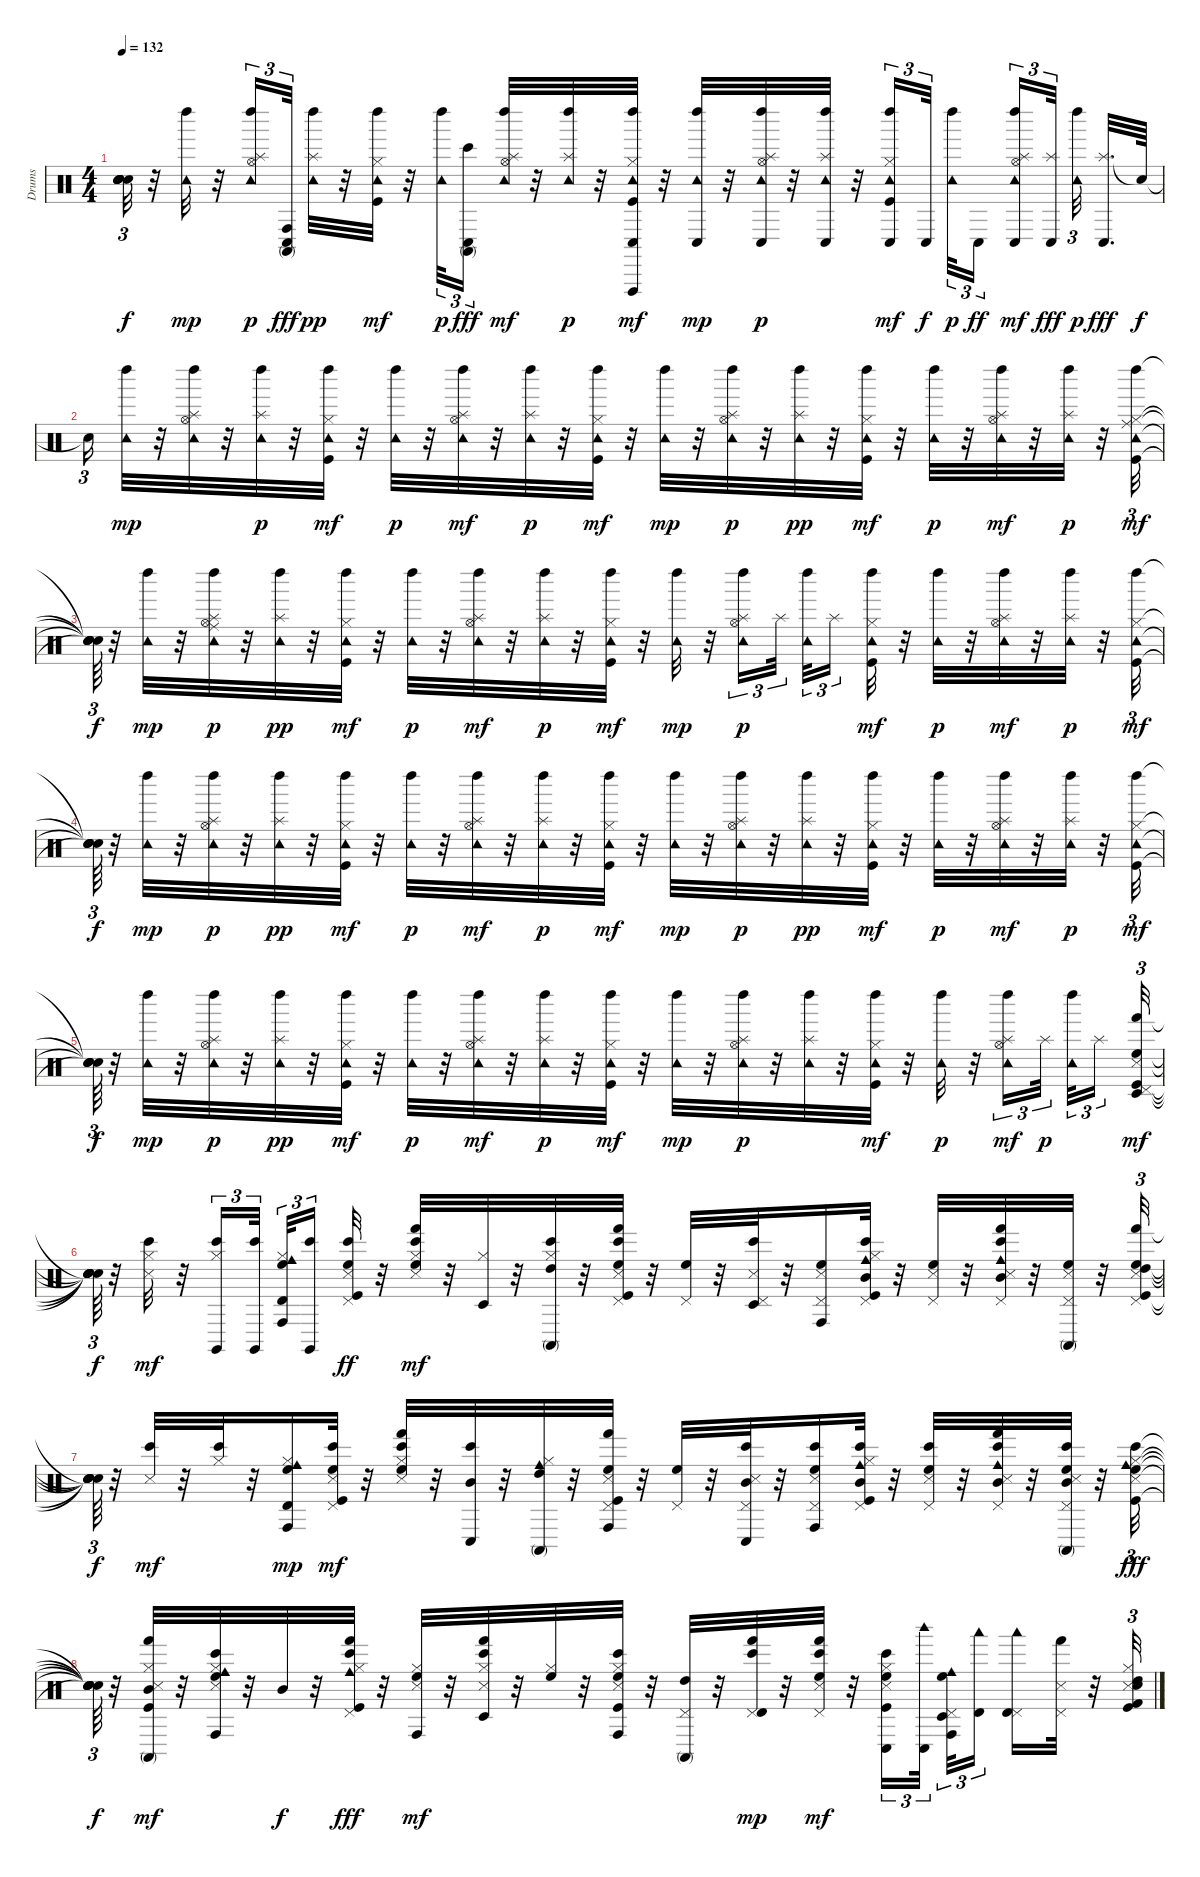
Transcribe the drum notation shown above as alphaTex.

\track ("Drums" "Drums") {instrument percussion}
\staff {score}
\articulation defaults
\ts (4 4)
\tempo 132
\clef neutral
\ks c
("Snare (hit)"{t} "Snare (hit)"{t} "Snare (hit)"{t} "Snare (hit)"{t} "Snare (hit)"{t} "Snare (hit)"{t}).32{tu (3 2) dy f} r.32 ("Tambourine (hit)" "Left Maraca (hit)").32{dy mp} r.32 ("Hi-Hat (open)" "Tambourine (hit)" "Splash (hit)" "Left Maraca (hit)").16{tu (3 2) dy p} ("Conga high (mute)" "Conga high (hit)" "Conga low (hit)").32{tu (3 2) dy fff} ("Tambourine (hit)" "Splash (hit)" "Left Maraca (hit)").32{dy pp} r.32 ("Kick (hit)" "Hi-Hat (closed)" "Tambourine (hit)" "Left Maraca (hit)").32{dy mf} r.32 ("Tambourine (hit)" "Left Maraca (hit)").32{tu (3 2) dy p} ("Bongo High (hit)" "Conga high (mute)" "Conga low (hit)").16{tu (3 2) dy fff beam splitsecondary} ("Hi-Hat (open)" "Tambourine (hit)" "Splash (hit)" "Left Maraca (hit)").32{dy mf} r.32 ("Tambourine (hit)" "Splash (hit)" "Left Maraca (hit)").32{dy p} r.32 ("Kick (hit)" "Hi-Hat (closed)" "Tambourine (hit)" "Vibraslap (hit)" "Conga low (hit)" "Left Maraca (hit)").32{dy mf} r.32 ("Tambourine (hit)" "Conga low (hit)" "Left Maraca (hit)").32{dy mp} r.32 ("Hi-Hat (open)" "Tambourine (hit)" "Splash (hit)" "Conga low (hit)" "Left Maraca (hit)").32{dy p} r.32 ("Tambourine (hit)" "Splash (hit)" "Conga low (hit)" "Left Maraca (hit)").32 r.32 ("Kick (hit)" "Hi-Hat (closed)" "Tambourine (hit)" "Conga low (hit)" "Left Maraca (hit)").16{tu (3 2) dy mf} "Conga low (hit)".32{tu (3 2) dy f beam splitsecondary} ("Tambourine (hit)" "Left Maraca (hit)").32{tu (3 2) dy p} "Conga low (hit)".16{tu (3 2) dy ff beam splitsecondary} ("Hi-Hat (open)" "Tambourine (hit)" "Splash (hit)" "Conga low (hit)" "Left Maraca (hit)").16{tu (3 2) dy mf} ("Splash (hit)" "Conga low (hit)").32{tu (3 2) dy fff beam splitsecondary} ("Tambourine (hit)" "Left Maraca (hit)").32{tu (3 2) dy p beam splitsecondary} ("Splash (hit)" "Conga low (hit)").32{d dy fff} "Snare (hit)"{t}.64{dy f} |
"Snare (hit)"{t}.16{tu (3 2)} ("Tambourine (hit)" "Left Maraca (hit)").32{dy mp} r.32 ("Hi-Hat (open)" "Tambourine (hit)" "Splash (hit)" "Left Maraca (hit)").32 r.32 ("Tambourine (hit)" "Splash (hit)" "Left Maraca (hit)").32{dy p} r.32 ("Kick (hit)" "Hi-Hat (closed)" "Tambourine (hit)" "Left Maraca (hit)").32{dy mf} r.32 ("Tambourine (hit)" "Left Maraca (hit)").32{dy p} r.32 ("Hi-Hat (open)" "Tambourine (hit)" "Splash (hit)" "Left Maraca (hit)").32{dy mf} r.32 ("Tambourine (hit)" "Splash (hit)" "Left Maraca (hit)").32{dy p} r.32 ("Kick (hit)" "Hi-Hat (closed)" "Tambourine (hit)" "Left Maraca (hit)").32{dy mf} r.32 ("Tambourine (hit)" "Left Maraca (hit)").32{dy mp} r.32 ("Hi-Hat (open)" "Tambourine (hit)" "Splash (hit)" "Left Maraca (hit)").32{dy p} r.32 ("Tambourine (hit)" "Splash (hit)" "Left Maraca (hit)").32{dy pp} r.32 ("Kick (hit)" "Hi-Hat (closed)" "Tambourine (hit)" "Left Maraca (hit)").32{dy mf} r.32 ("Tambourine (hit)" "Left Maraca (hit)").32{dy p} r.32 ("Hi-Hat (open)" "Tambourine (hit)" "Splash (hit)" "Left Maraca (hit)").32{dy mf} r.32 ("Tambourine (hit)" "Splash (hit)" "Left Maraca (hit)").32{dy p} r.32 ("Kick (hit)" "Hi-Hat (closed)" "Ride (middle)" "Tambourine (hit)" "Left Maraca (hit)").32{tu (3 2) dy mf} |
("Snare (hit)"{t} "Snare (hit)"{t} "Snare (hit)"{t} "Snare (hit)"{t} "Snare (hit)"{t}).64{tu (3 2) dy f} r.32 ("Tambourine (hit)" "Left Maraca (hit)").32{dy mp} r.32 ("Hi-Hat (open)" "Ride (middle)" "Tambourine (hit)" "Splash (hit)" "Left Maraca (hit)").32{dy p} r.32 ("Tambourine (hit)" "Splash (hit)" "Left Maraca (hit)").32{dy pp} r.32 ("Kick (hit)" "Hi-Hat (closed)" "Tambourine (hit)" "Left Maraca (hit)").32{dy mf} r.32 ("Tambourine (hit)" "Left Maraca (hit)").32{dy p} r.32 ("Hi-Hat (open)" "Tambourine (hit)" "Splash (hit)" "Left Maraca (hit)").32{dy mf} r.32 ("Tambourine (hit)" "Splash (hit)" "Left Maraca (hit)").32{dy p} r.32 ("Kick (hit)" "Hi-Hat (closed)" "Tambourine (hit)" "Left Maraca (hit)").32{dy mf} r.32 ("Tambourine (hit)" "Left Maraca (hit)").32{dy mp} r.32 ("Hi-Hat (open)" "Tambourine (hit)" "Splash (hit)" "Left Maraca (hit)").16{tu (3 2) dy p} "Splash (hit)".32{tu (3 2) beam splitsecondary} ("Tambourine (hit)" "Left Maraca (hit)").32{tu (3 2)} "Splash (hit)".16{tu (3 2) beam splitsecondary} ("Kick (hit)" "Hi-Hat (closed)" "Tambourine (hit)" "Left Maraca (hit)").32{dy mf} r.32 ("Tambourine (hit)" "Left Maraca (hit)").32{dy p} r.32 ("Hi-Hat (open)" "Tambourine (hit)" "Splash (hit)" "Left Maraca (hit)").32{dy mf} r.32 ("Tambourine (hit)" "Splash (hit)" "Left Maraca (hit)").32{dy p} r.32 ("Kick (hit)" "Hi-Hat (closed)" "Tambourine (hit)" "Left Maraca (hit)").32{tu (3 2) dy mf} |
("Snare (hit)"{t} "Snare (hit)"{t} "Snare (hit)"{t} "Snare (hit)"{t}).64{tu (3 2) dy f} r.32 ("Tambourine (hit)" "Left Maraca (hit)").32{dy mp} r.32 ("Hi-Hat (open)" "Tambourine (hit)" "Splash (hit)" "Left Maraca (hit)").32{dy p} r.32 ("Tambourine (hit)" "Splash (hit)" "Left Maraca (hit)").32{dy pp} r.32 ("Kick (hit)" "Hi-Hat (closed)" "Tambourine (hit)" "Left Maraca (hit)").32{dy mf} r.32 ("Tambourine (hit)" "Left Maraca (hit)").32{dy p} r.32 ("Hi-Hat (open)" "Tambourine (hit)" "Splash (hit)" "Left Maraca (hit)").32{dy mf} r.32 ("Tambourine (hit)" "Splash (hit)" "Left Maraca (hit)").32{dy p} r.32 ("Kick (hit)" "Hi-Hat (closed)" "Tambourine (hit)" "Left Maraca (hit)").32{dy mf} r.32 ("Tambourine (hit)" "Left Maraca (hit)").32{dy mp} r.32 ("Hi-Hat (open)" "Tambourine (hit)" "Splash (hit)" "Left Maraca (hit)").32{dy p} r.32 ("Tambourine (hit)" "Splash (hit)" "Left Maraca (hit)").32{dy pp} r.32 ("Kick (hit)" "Hi-Hat (closed)" "Tambourine (hit)" "Left Maraca (hit)").32{dy mf} r.32 ("Tambourine (hit)" "Left Maraca (hit)").32{dy p} r.32 ("Hi-Hat (open)" "Tambourine (hit)" "Splash (hit)" "Left Maraca (hit)").32{dy mf} r.32 ("Tambourine (hit)" "Splash (hit)" "Left Maraca (hit)").32{dy p} r.32 ("Kick (hit)" "Hi-Hat (closed)" "Tambourine (hit)" "Left Maraca (hit)").32{tu (3 2) dy mf} |
("Snare (hit)"{t} "Snare (hit)"{t} "Snare (hit)"{t} "Snare (hit)"{t}).64{tu (3 2) dy f} r.32 ("Tambourine (hit)" "Left Maraca (hit)").32{dy mp} r.32 ("Hi-Hat (open)" "Tambourine (hit)" "Splash (hit)" "Left Maraca (hit)").32{dy p} r.32 ("Tambourine (hit)" "Splash (hit)" "Left Maraca (hit)").32{dy pp} r.32 ("Kick (hit)" "Hi-Hat (closed)" "Tambourine (hit)" "Left Maraca (hit)").32{dy mf} r.32 ("Tambourine (hit)" "Left Maraca (hit)").32{dy p} r.32 ("Hi-Hat (open)" "Tambourine (hit)" "Splash (hit)" "Left Maraca (hit)").32{dy mf} r.32 ("Tambourine (hit)" "Splash (hit)" "Left Maraca (hit)").32{dy p} r.32 ("Kick (hit)" "Hi-Hat (closed)" "Tambourine (hit)" "Left Maraca (hit)").32{dy mf} r.32 ("Tambourine (hit)" "Left Maraca (hit)").32{dy mp} r.32 ("Hi-Hat (open)" "Tambourine (hit)" "Splash (hit)" "Left Maraca (hit)").32{dy p} r.32 ("Tambourine (hit)" "Splash (hit)" "Left Maraca (hit)").32 r.32 ("Kick (hit)" "Hi-Hat (closed)" "Tambourine (hit)" "Left Maraca (hit)").32{dy mf} r.32 ("Tambourine (hit)" "Left Maraca (hit)").32{dy p} r.32 ("Hi-Hat (open)" "Tambourine (hit)" "Splash (hit)" "Left Maraca (hit)").16{tu (3 2) dy mf} "Splash (hit)".32{tu (3 2) dy p beam splitsecondary} ("Tambourine (hit)" "Left Maraca (hit)").32{tu (3 2)} "Splash (hit)".16{tu (3 2) beam splitsecondary} ("Kick (hit)" "Snare (side stick) 3" "Pedal Hi-Hat (hit)" "High Floor Tom (hit)" "Hand (hit)" "Timbale low (hit)").32{tu (3 2) dy mf} |
("Snare (hit)"{t} "Snare (hit)"{t} "Snare (hit)"{t} "Snare (hit)"{t} "Snare (hit)"{t} "Snare (hit)"{t}).64{tu (3 2) dy f} r.32 ("Snare (side stick) 3" "Hi-Hat (closed)" "Bongo High (hit)").32{dy mf} r.32 ("Hi-Hat (closed)" "Bongo High (hit)" "Claves (hit)").16{tu (3 2)} ("Bongo High (hit)" "Claves (hit)").32{tu (3 2) beam splitsecondary} ("Hi-Hat (closed)" "High Floor Tom (hit)" "Cowbell medium (hit)" "Conga high (hit)" "Timbale high (hit)").32{tu (3 2)} ("Bongo High (hit)" "Claves (hit)").16{tu (3 2) beam splitsecondary} ("Kick (hit)" "Snare (side stick) 3" "Pedal Hi-Hat (hit)" "High Floor Tom (hit)" "Bongo High (hit)").32{dy ff} r.32 ("Snare (side stick) 3" "Hi-Hat (closed)" "High Floor Tom (hit)" "Bongo High (hit)" "Hand (hit)").32{dy mf} r.32 ("Hi-Hat (closed)" "Timbale low (hit)").32 r.32 ("Hi-Hat (closed)" "High Tom (hit)" "Bongo High (hit)" "Conga high (mute)").32 r.32 ("Kick (hit)" "Snare (side stick) 3" "Pedal Hi-Hat (hit)" "High Floor Tom (hit)" "Bongo High (hit)" "Hand (hit)").32 r.32 ("Pedal Hi-Hat (hit)" "High Floor Tom (hit)").32 r.32 ("Snare (side stick) 3" "Pedal Hi-Hat (hit)" "Bongo High (hit)" "Timbale low (hit)").32 r.32 ("Snare (side stick) 3" "Pedal Hi-Hat (hit)" "High Floor Tom (hit)" "Conga high (hit)").16 ("Kick (hit)" "Hi-Hat (closed)" "Pedal Hi-Hat (hit)" "Mid Tom (hit)" "Cowbell medium (hit)" "Bongo High (hit)").32 r.32 ("Snare (side stick) 3" "Pedal Hi-Hat (hit)" "High Floor Tom (hit)").32 r.32 ("Snare (side stick) 3" "Pedal Hi-Hat (hit)" "Mid Tom (hit)" "Cowbell medium (hit)" "Bongo High (hit)" "Hand (hit)").32 r.32 ("Snare (side stick) 3" "Pedal Hi-Hat (hit)" "High Floor Tom (hit)" "Conga high (mute)").32 r.32 ("Kick (hit)" "Snare (side stick) 3" "Pedal Hi-Hat (hit)" "High Tom (hit)" "High Floor Tom (hit)" "Hand (hit)").32{tu (3 2)} |
("Snare (hit)"{t} "Snare (hit)"{t} "Snare (hit)"{t} "Snare (hit)"{t} "Snare (hit)"{t} "Snare (hit)"{t}).64{tu (3 2) dy f} r.32 ("Snare (side stick) 3" "Bongo High (hit)").32{dy mf} r.32 ("Hi-Hat (closed)" "Bongo High (hit)").32 r.32 ("Hi-Hat (closed)" "High Floor Tom (hit)" "Cowbell medium (hit)" "Conga high (hit)" "Timbale high (hit)").16{dy mp} ("Kick (hit)" "Snare (side stick) 3" "Pedal Hi-Hat (hit)" "High Floor Tom (hit)" "Bongo High (hit)").32{dy mf} r.32 ("Snare (side stick) 3" "Hi-Hat (closed)" "High Floor Tom (hit)" "Bongo High (hit)" "Hand (hit)").32 r.32 ("Mid Tom (hit)" "Bongo High (hit)" "Conga low (hit)").32 r.32 ("Hi-Hat (closed)" "High Tom (hit)" "Cowbell medium (hit)" "Conga high (mute)").32 r.32 ("Kick (hit)" "Snare (side stick) 3" "Pedal Hi-Hat (hit)" "High Floor Tom (hit)" "Hand (hit)" "Conga high (hit)").32 r.32 ("Pedal Hi-Hat (hit)" "High Floor Tom (hit)").32 r.32 ("Snare (side stick) 3" "Pedal Hi-Hat (hit)" "Mid Tom (hit)" "Bongo High (hit)" "Conga low (hit)").32 r.32 ("Snare (side stick) 3" "Pedal Hi-Hat (hit)" "High Floor Tom (hit)" "Bongo High (hit)" "Conga high (hit)").16 ("Kick (hit)" "Hi-Hat (closed)" "Pedal Hi-Hat (hit)" "Mid Tom (hit)" "Cowbell medium (hit)" "Bongo High (hit)").32 r.32 ("Snare (side stick) 3" "Pedal Hi-Hat (hit)" "High Floor Tom (hit)" "Bongo High (hit)").32 r.32 ("Snare (side stick) 3" "Pedal Hi-Hat (hit)" "Mid Tom (hit)" "Cowbell medium (hit)" "Bongo High (hit)" "Hand (hit)").32 r.32 ("Snare (side stick) 3" "Pedal Hi-Hat (hit)" "Mid Tom (hit)" "High Floor Tom (hit)" "Bongo High (hit)" "Conga high (mute)").32 r.32 ("Kick (hit)" "Snare (side stick) 3" "Hi-Hat (closed)" "High Floor Tom (hit)" "Cowbell medium (hit)" "Bongo High (hit)").32{tu (3 2) dy fff} |
("Snare (hit)"{t} "Snare (hit)"{t} "Snare (hit)"{t} "Snare (hit)"{t} "Snare (hit)"{t} "Snare (hit)"{t}).64{tu (3 2) dy f} r.32 ("Kick (hit)" "Snare (side stick) 3" "Hi-Hat (closed)" "Mid Tom (hit)" "Hand (hit)" "Conga high (mute)").32{dy mf} r.32 ("Snare (side stick) 3" "Hi-Hat (closed)" "High Floor Tom (hit)" "Cowbell medium (hit)" "Bongo High (hit)" "Conga high (hit)").32 r.32 "Mid Tom (hit)".32{dy f} r.32 ("Kick (hit)" "Hi-Hat (closed)" "Pedal Hi-Hat (hit)" "Cowbell medium (hit)" "Bongo High (hit)" "Hand (hit)").32{dy fff} r.32 ("Snare (side stick) 3" "Hi-Hat (closed)" "High Floor Tom (hit)" "Conga high (hit)").32{dy mf} r.32 ("Snare (side stick) 3" "Hi-Hat (closed)" "Bongo High (hit)" "Hand (hit)" "Timbale low (hit)").32 r.32 ("Hi-Hat (closed)" "High Floor Tom (hit)").32 r.32 ("Kick (hit)" "Snare (side stick) 3" "Hi-Hat (closed)" "High Floor Tom (hit)" "Bongo High (hit)" "Conga high (hit)").32 r.32 ("Pedal Hi-Hat (hit)" "High Tom (hit)" "Conga high (mute)").32 r.32 ("Pedal Hi-Hat (hit)" "Bongo High (hit)" "Hand (hit)" "Timbale high (hit)").32{dy mp} r.32 ("Snare (side stick) 3" "Pedal Hi-Hat (hit)" "High Floor Tom (hit)" "Bongo High (hit)" "Hand (hit)").32{dy mf} r.32 ("Kick (hit)" "Snare (side stick) 3" "Hi-Hat (closed)" "High Floor Tom (hit)" "Bongo High (hit)" "Conga low (hit)").16{tu (3 2)} ("Conga low (hit)" "Woodblock high (hit)").32{tu (3 2) beam splitsecondary} ("Pedal Hi-Hat (hit)" "High Floor Tom (hit)" "Cowbell medium (hit)" "Conga high (hit)" "Timbale low (hit)").32{tu (3 2)} ("Timbale high (hit)" "Woodblock low (hit)").16{tu (3 2) beam splitsecondary} ("Pedal Hi-Hat (hit)" "Timbale high (hit)" "Woodblock low (hit)").16 ("Snare (side stick) 3" "Pedal Hi-Hat (hit)" "Hand (hit)").32 r.32 ("Kick (hit)" "Kick (hit) 2" "Snare (side stick) 3" "Snare (hit) 2" "Hi-Hat (closed)" "High Tom (hit)").32{tu (3 2)}
